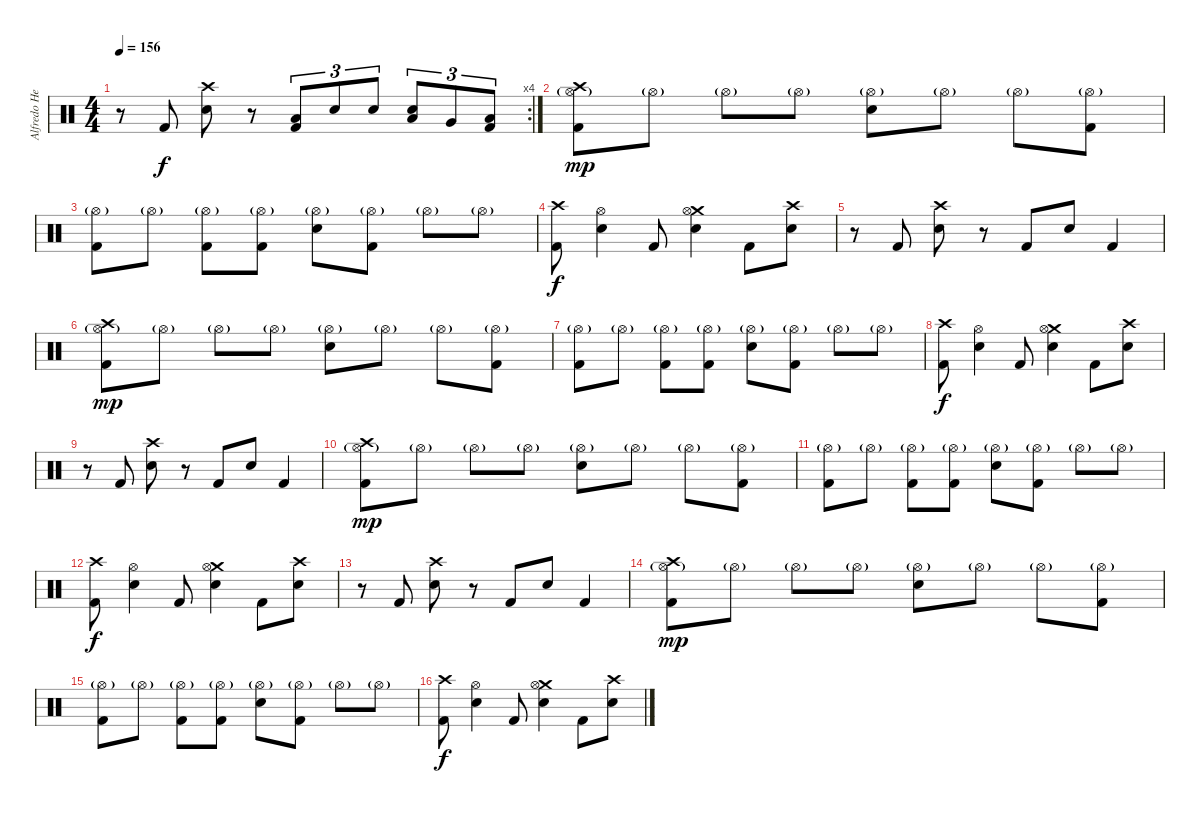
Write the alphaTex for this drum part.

\track ("Alfredo Hernández" "Alfredo He") {instrument percussion}
\staff {score}
\articulation defaults
\rc 4
\ts (4 4)
\tempo 156
\clef neutral
\ks c
r.8{dy f} "Kick (hit) 2".8 ("Crash high (hit)" "Electric Snare (hit)").8 r.8 ("Low Floor Tom (hit)" "Kick (hit) 2").8{tu (3 2)} "Electric Snare (hit)".8{tu (3 2)} "Electric Snare (hit)".8{tu (3 2)} ("Electric Snare (hit)" "Low Tom (hit)").8{tu (3 2)} "Very Low Tom (hit)".8{tu (3 2)} ("Low Floor Tom (hit)" "Kick (hit) 2").8{tu (3 2)} |
("Crash high (hit)" "Hi-Hat (open)"{g} "Kick (hit) 2").8{dy mp} "Hi-Hat (open)"{g}.8 "Hi-Hat (open)"{g}.8 "Hi-Hat (open)"{g}.8 ("Electric Snare (hit)" "Hi-Hat (open)"{g}).8 "Hi-Hat (open)"{g}.8 "Hi-Hat (open)"{g}.8 ("Hi-Hat (open)"{g} "Kick (hit) 2").8 |
("Hi-Hat (open)"{g} "Kick (hit) 2").8 "Hi-Hat (open)"{g}.8 ("Hi-Hat (open)"{g} "Kick (hit) 2").8 ("Hi-Hat (open)"{g} "Kick (hit) 2").8 ("Electric Snare (hit)" "Hi-Hat (open)"{g}).8 ("Hi-Hat (open)"{g} "Kick (hit) 2").8 "Hi-Hat (open)"{g}.8 "Hi-Hat (open)"{g}.8 |
("Crash high (hit)" "Kick (hit) 2").8{dy f} ("Electric Snare (hit)" "Hi-Hat (open)").4 "Kick (hit) 2".8 ("Electric Snare (hit)" "Crash medium (hit)" "Hi-Hat (open)").4 "Kick (hit) 2".8 ("Electric Snare (hit)" "Crash high (hit)").8 |
r.8 "Kick (hit) 2".8 ("Crash high (hit)" "Electric Snare (hit)").8 r.8 "Kick (hit) 2".8 "Electric Snare (hit)".8 "Kick (hit) 2".4 |
("Crash high (hit)" "Hi-Hat (open)"{g} "Kick (hit) 2").8{dy mp} "Hi-Hat (open)"{g}.8 "Hi-Hat (open)"{g}.8 "Hi-Hat (open)"{g}.8 ("Electric Snare (hit)" "Hi-Hat (open)"{g}).8 "Hi-Hat (open)"{g}.8 "Hi-Hat (open)"{g}.8 ("Hi-Hat (open)"{g} "Kick (hit) 2").8 |
("Hi-Hat (open)"{g} "Kick (hit) 2").8 "Hi-Hat (open)"{g}.8 ("Hi-Hat (open)"{g} "Kick (hit) 2").8 ("Hi-Hat (open)"{g} "Kick (hit) 2").8 ("Electric Snare (hit)" "Hi-Hat (open)"{g}).8 ("Hi-Hat (open)"{g} "Kick (hit) 2").8 "Hi-Hat (open)"{g}.8 "Hi-Hat (open)"{g}.8 |
("Crash high (hit)" "Kick (hit) 2").8{dy f} ("Electric Snare (hit)" "Hi-Hat (open)").4 "Kick (hit) 2".8 ("Electric Snare (hit)" "Crash medium (hit)" "Hi-Hat (open)").4 "Kick (hit) 2".8 ("Electric Snare (hit)" "Crash high (hit)").8 |
r.8 "Kick (hit) 2".8 ("Crash high (hit)" "Electric Snare (hit)").8 r.8 "Kick (hit) 2".8 "Electric Snare (hit)".8 "Kick (hit) 2".4 |
("Crash high (hit)" "Hi-Hat (open)"{g} "Kick (hit) 2").8{dy mp} "Hi-Hat (open)"{g}.8 "Hi-Hat (open)"{g}.8 "Hi-Hat (open)"{g}.8 ("Electric Snare (hit)" "Hi-Hat (open)"{g}).8 "Hi-Hat (open)"{g}.8 "Hi-Hat (open)"{g}.8 ("Hi-Hat (open)"{g} "Kick (hit) 2").8 |
("Hi-Hat (open)"{g} "Kick (hit) 2").8 "Hi-Hat (open)"{g}.8 ("Hi-Hat (open)"{g} "Kick (hit) 2").8 ("Hi-Hat (open)"{g} "Kick (hit) 2").8 ("Electric Snare (hit)" "Hi-Hat (open)"{g}).8 ("Hi-Hat (open)"{g} "Kick (hit) 2").8 "Hi-Hat (open)"{g}.8 "Hi-Hat (open)"{g}.8 |
("Crash high (hit)" "Kick (hit) 2").8{dy f} ("Electric Snare (hit)" "Hi-Hat (open)").4 "Kick (hit) 2".8 ("Electric Snare (hit)" "Crash medium (hit)" "Hi-Hat (open)").4 "Kick (hit) 2".8 ("Electric Snare (hit)" "Crash high (hit)").8 |
r.8 "Kick (hit) 2".8 ("Crash high (hit)" "Electric Snare (hit)").8 r.8 "Kick (hit) 2".8 "Electric Snare (hit)".8 "Kick (hit) 2".4 |
("Crash high (hit)" "Hi-Hat (open)"{g} "Kick (hit) 2").8{dy mp} "Hi-Hat (open)"{g}.8 "Hi-Hat (open)"{g}.8 "Hi-Hat (open)"{g}.8 ("Electric Snare (hit)" "Hi-Hat (open)"{g}).8 "Hi-Hat (open)"{g}.8 "Hi-Hat (open)"{g}.8 ("Hi-Hat (open)"{g} "Kick (hit) 2").8 |
("Hi-Hat (open)"{g} "Kick (hit) 2").8 "Hi-Hat (open)"{g}.8 ("Hi-Hat (open)"{g} "Kick (hit) 2").8 ("Hi-Hat (open)"{g} "Kick (hit) 2").8 ("Electric Snare (hit)" "Hi-Hat (open)"{g}).8 ("Hi-Hat (open)"{g} "Kick (hit) 2").8 "Hi-Hat (open)"{g}.8 "Hi-Hat (open)"{g}.8 |
("Crash high (hit)" "Kick (hit) 2").8{dy f} ("Electric Snare (hit)" "Hi-Hat (open)").4 "Kick (hit) 2".8 ("Electric Snare (hit)" "Crash medium (hit)" "Hi-Hat (open)").4 "Kick (hit) 2".8 ("Electric Snare (hit)" "Crash high (hit)").8
